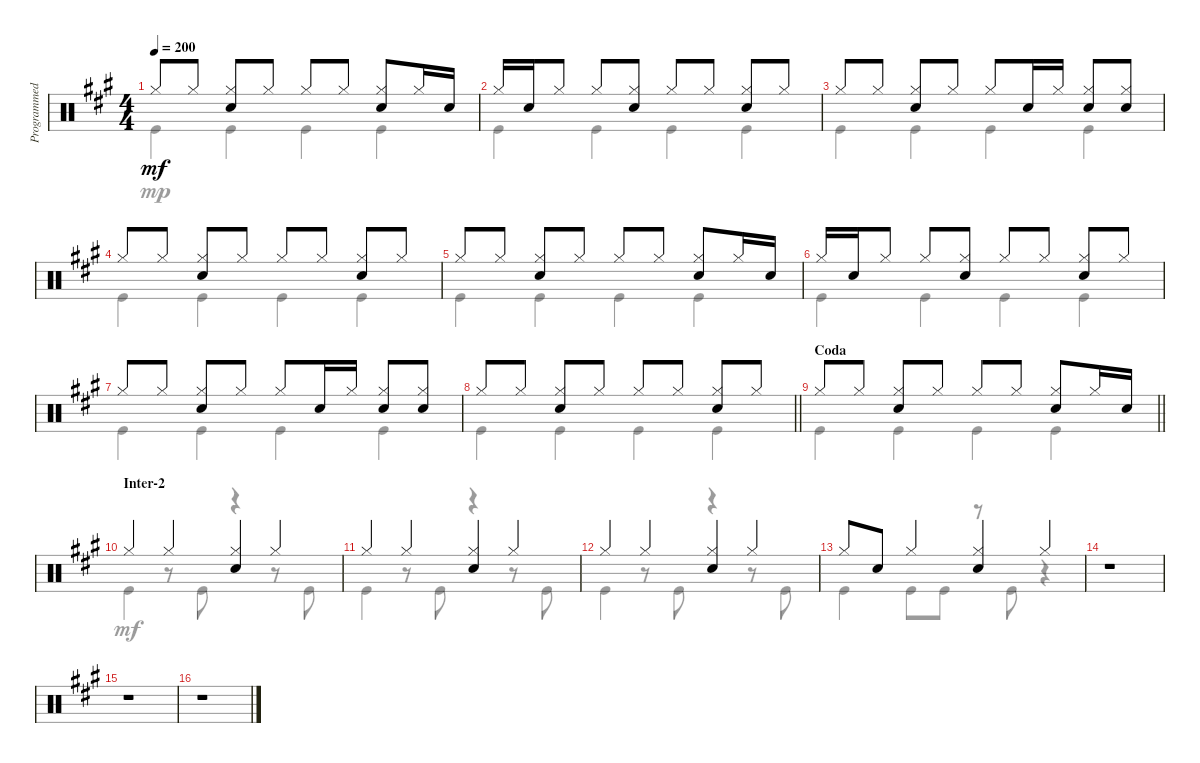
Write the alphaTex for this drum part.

\track ("Programmed Drums" "Programmed") {instrument percussion}
\staff {score}
\articulation defaults
\voice
\ts (4 4)
\tempo 200
\clef neutral
\ks a "Hi-Hat (closed)".8{dy mf} "Hi-Hat (closed)".8
("Hi-Hat (closed)" "Snare (hit) 2").8 "Hi-Hat (closed)".8 "Hi-Hat (closed)".8 "Hi-Hat (closed)".8 ("Hi-Hat (closed)" "Snare (hit) 2").8 "Hi-Hat (closed)".16 "Snare (hit) 2".16 |
"Hi-Hat (closed)".16 "Snare (hit) 2".16 "Hi-Hat (closed)".8 "Hi-Hat (closed)".8 ("Hi-Hat (closed)" "Snare (hit) 2").8 "Hi-Hat (closed)".8 "Hi-Hat (closed)".8 ("Hi-Hat (closed)" "Snare (hit) 2").8 "Hi-Hat (closed)".8 |
"Hi-Hat (closed)".8 "Hi-Hat (closed)".8 ("Hi-Hat (closed)" "Snare (hit) 2").8 "Hi-Hat (closed)".8 "Hi-Hat (closed)".8 "Snare (hit) 2".16 "Hi-Hat (closed)".16 ("Hi-Hat (closed)" "Snare (hit) 2").8 ("Hi-Hat (closed)" "Snare (hit) 2").8 |
"Hi-Hat (closed)".8 "Hi-Hat (closed)".8 ("Hi-Hat (closed)" "Snare (hit) 2").8 "Hi-Hat (closed)".8 "Hi-Hat (closed)".8 "Hi-Hat (closed)".8 ("Hi-Hat (closed)" "Snare (hit) 2").8 "Hi-Hat (closed)".8 |
"Hi-Hat (closed)".8 "Hi-Hat (closed)".8 ("Hi-Hat (closed)" "Snare (hit) 2").8 "Hi-Hat (closed)".8 "Hi-Hat (closed)".8 "Hi-Hat (closed)".8 ("Hi-Hat (closed)" "Snare (hit) 2").8 "Hi-Hat (closed)".16 "Snare (hit) 2".16 |
"Hi-Hat (closed)".16 "Snare (hit) 2".16 "Hi-Hat (closed)".8 "Hi-Hat (closed)".8 ("Hi-Hat (closed)" "Snare (hit) 2").8 "Hi-Hat (closed)".8 "Hi-Hat (closed)".8 ("Hi-Hat (closed)" "Snare (hit) 2").8 "Hi-Hat (closed)".8 |
"Hi-Hat (closed)".8 "Hi-Hat (closed)".8 ("Hi-Hat (closed)" "Snare (hit) 2").8 "Hi-Hat (closed)".8 "Hi-Hat (closed)".8 "Snare (hit) 2".16 "Hi-Hat (closed)".16 ("Hi-Hat (closed)" "Snare (hit) 2").8 ("Hi-Hat (closed)" "Snare (hit) 2").8 |
\barLineRight lightlight "Hi-Hat (closed)".8 "Hi-Hat (closed)".8
("Hi-Hat (closed)" "Snare (hit) 2").8 "Hi-Hat (closed)".8 "Hi-Hat (closed)".8 "Hi-Hat (closed)".8 ("Hi-Hat (closed)" "Snare (hit) 2").8 "Hi-Hat (closed)".8 |
\section ("" "Coda")
\barLineRight lightlight "Hi-Hat (closed)".8 "Hi-Hat (closed)".8
("Hi-Hat (closed)" "Snare (hit) 2").8 "Hi-Hat (closed)".8 "Hi-Hat (closed)".8 "Hi-Hat (closed)".8 ("Hi-Hat (closed)" "Snare (hit) 2").8 "Hi-Hat (closed)".16 "Snare (hit) 2".16 |
\section ("" "Inter-2")
"Hi-Hat (closed)".4 "Hi-Hat (closed)".4 ("Hi-Hat (closed)" "Snare (hit) 2").4 "Hi-Hat (closed)".4 |
"Hi-Hat (closed)".4 "Hi-Hat (closed)".4 ("Hi-Hat (closed)" "Snare (hit) 2").4 "Hi-Hat (closed)".4 |
"Hi-Hat (closed)".4 "Hi-Hat (closed)".4 ("Hi-Hat (closed)" "Snare (hit) 2").4 "Hi-Hat (closed)".4 |
"Hi-Hat (closed)".8 "Snare (hit) 2".8 "Hi-Hat (closed)".4 ("Hi-Hat (closed)" "Snare (hit) 2").4 "Hi-Hat (closed)".4 |
r.1 |
r.1 |
r.1
\voice
\clef neutral
\ottava regular
\simile none
\ks a "Kick (hit)".4{dy mp} "Kick (hit)".4 "Kick (hit)".4 "Kick (hit)".4
|
"Kick (hit)".4 "Kick (hit)".4 "Kick (hit)".4 "Kick (hit)".4 |
"Kick (hit)".4 "Kick (hit)".4 "Kick (hit)".4 "Kick (hit)".4 |
"Kick (hit)".4 "Kick (hit)".4 "Kick (hit)".4 "Kick (hit)".4 |
"Kick (hit)".4 "Kick (hit)".4 "Kick (hit)".4 "Kick (hit)".4 |
"Kick (hit)".4 "Kick (hit)".4 "Kick (hit)".4 "Kick (hit)".4 |
"Kick (hit)".4 "Kick (hit)".4 "Kick (hit)".4 "Kick (hit)".4 |
\barLineRight lightlight "Kick (hit)".4 "Kick (hit)".4 "Kick (hit)".4 "Kick (hit)".4
|
\barLineRight lightlight "Kick (hit)".4 "Kick (hit)".4 "Kick (hit)".4 "Kick (hit)".4
|
"Kick (hit)".4{dy mf} r.8 "Kick (hit)".8 r.4 r.8 "Kick (hit)".8 |
"Kick (hit)".4 r.8 "Kick (hit)".8 r.4 r.8 "Kick (hit)".8 |
"Kick (hit)".4 r.8 "Kick (hit)".8 r.4 r.8 "Kick (hit)".8 |
"Kick (hit)".4 "Kick (hit)".8 "Kick (hit)".8 r.8 "Kick (hit)".8 r.4 |
|
|
